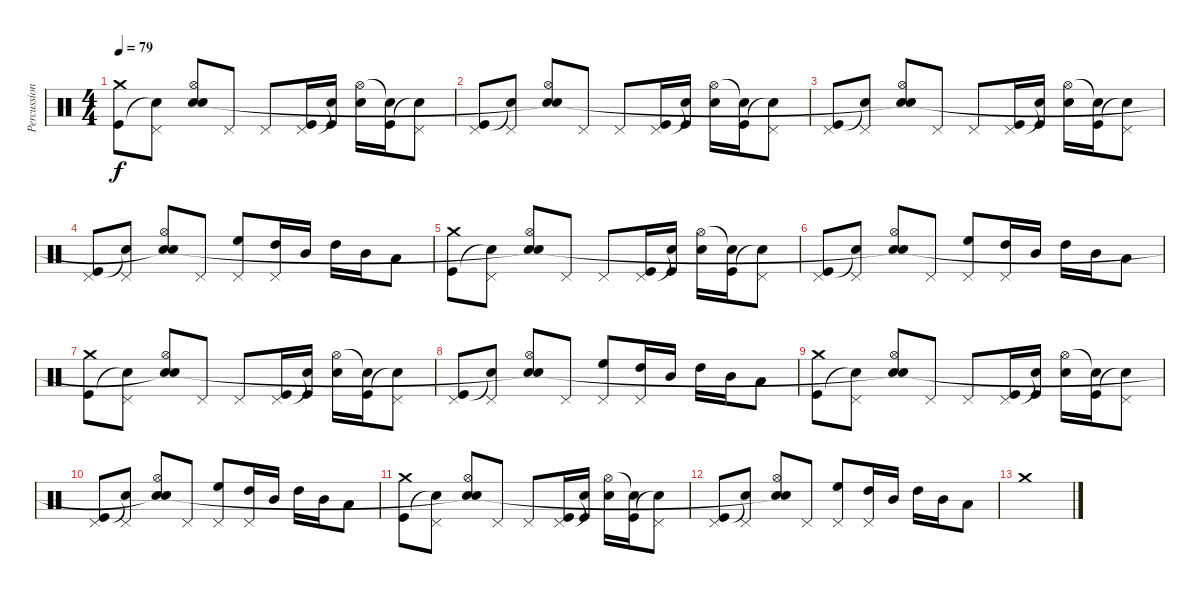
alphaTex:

\track ("Percussion" "Percussion") {instrument percussion}
\staff {score}
\articulation defaults
\ts (4 4)
\tempo 79
\clef neutral
\ks c
("Crash medium (hit)" "Kick (hit)").8{dy f} ("Pedal Hi-Hat (hit)" "Snare (hit)"{t}).8 ("Hi-Hat (open)" "Electric Snare (hit)" "Snare (hit)"{t}).8 "Pedal Hi-Hat (hit)".8 "Pedal Hi-Hat (hit)".8 ("Pedal Hi-Hat (hit)" "Kick (hit)").16 ("Snare (hit)"{t} "Kick (hit)").16 ("Hi-Hat (open)" "Electric Snare (hit)").16 ("Snare (hit)"{t} "Kick (hit)").16 ("Pedal Hi-Hat (hit)" "Snare (hit)"{t}).8 |
("Pedal Hi-Hat (hit)" "Kick (hit)").8 ("Pedal Hi-Hat (hit)" "Snare (hit)"{t}).8 ("Hi-Hat (open)" "Electric Snare (hit)" "Snare (hit)"{t}).8 "Pedal Hi-Hat (hit)".8 "Pedal Hi-Hat (hit)".8 ("Pedal Hi-Hat (hit)" "Kick (hit)").16 ("Snare (hit)"{t} "Kick (hit)").16 ("Hi-Hat (open)" "Electric Snare (hit)").16 ("Snare (hit)"{t} "Kick (hit)").16 ("Pedal Hi-Hat (hit)" "Snare (hit)"{t}).8 |
("Pedal Hi-Hat (hit)" "Kick (hit)").8 ("Pedal Hi-Hat (hit)" "Snare (hit)"{t}).8 ("Hi-Hat (open)" "Electric Snare (hit)" "Snare (hit)"{t}).8 "Pedal Hi-Hat (hit)".8 "Pedal Hi-Hat (hit)".8 ("Pedal Hi-Hat (hit)" "Kick (hit)").16 ("Snare (hit)"{t} "Kick (hit)").16 ("Hi-Hat (open)" "Electric Snare (hit)").16 ("Snare (hit)"{t} "Kick (hit)").16 ("Pedal Hi-Hat (hit)" "Snare (hit)"{t}).8 |
("Pedal Hi-Hat (hit)" "Kick (hit)").8 ("Pedal Hi-Hat (hit)" "Snare (hit)"{t}).8 ("Hi-Hat (open)" "Electric Snare (hit)" "Snare (hit)"{t}).8 "Pedal Hi-Hat (hit)".8 ("Pedal Hi-Hat (hit)" "High Floor Tom (hit)").8 ("Pedal Hi-Hat (hit)" "High Tom (hit)").16 "Mid Tom (hit)".16 "High Tom (hit)".16 "Mid Tom (hit)".16 "Low Tom (hit)".8 |
("Crash medium (hit)" "Kick (hit)").8 ("Pedal Hi-Hat (hit)" "Snare (hit)"{t}).8 ("Hi-Hat (open)" "Electric Snare (hit)" "Snare (hit)"{t}).8 "Pedal Hi-Hat (hit)".8 "Pedal Hi-Hat (hit)".8 ("Pedal Hi-Hat (hit)" "Kick (hit)").16 ("Snare (hit)"{t} "Kick (hit)").16 ("Hi-Hat (open)" "Electric Snare (hit)").16 ("Snare (hit)"{t} "Kick (hit)").16 ("Pedal Hi-Hat (hit)" "Snare (hit)"{t}).8 |
("Pedal Hi-Hat (hit)" "Kick (hit)").8 ("Pedal Hi-Hat (hit)" "Snare (hit)"{t}).8 ("Hi-Hat (open)" "Electric Snare (hit)" "Snare (hit)"{t}).8 "Pedal Hi-Hat (hit)".8 ("Pedal Hi-Hat (hit)" "High Floor Tom (hit)").8 ("Pedal Hi-Hat (hit)" "High Tom (hit)").16 "Mid Tom (hit)".16 "High Tom (hit)".16 "Mid Tom (hit)".16 "Low Tom (hit)".8 |
("Crash medium (hit)" "Kick (hit)").8 ("Pedal Hi-Hat (hit)" "Snare (hit)"{t}).8 ("Hi-Hat (open)" "Electric Snare (hit)" "Snare (hit)"{t}).8 "Pedal Hi-Hat (hit)".8 "Pedal Hi-Hat (hit)".8 ("Pedal Hi-Hat (hit)" "Kick (hit)").16 ("Snare (hit)"{t} "Kick (hit)").16 ("Hi-Hat (open)" "Electric Snare (hit)").16 ("Snare (hit)"{t} "Kick (hit)").16 ("Pedal Hi-Hat (hit)" "Snare (hit)"{t}).8 |
("Pedal Hi-Hat (hit)" "Kick (hit)").8 ("Pedal Hi-Hat (hit)" "Snare (hit)"{t}).8 ("Hi-Hat (open)" "Electric Snare (hit)" "Snare (hit)"{t}).8 "Pedal Hi-Hat (hit)".8 ("Pedal Hi-Hat (hit)" "High Floor Tom (hit)").8 ("Pedal Hi-Hat (hit)" "High Tom (hit)").16 "Mid Tom (hit)".16 "High Tom (hit)".16 "Mid Tom (hit)".16 "Low Tom (hit)".8 |
("Crash medium (hit)" "Kick (hit)").8 ("Pedal Hi-Hat (hit)" "Snare (hit)"{t}).8 ("Hi-Hat (open)" "Electric Snare (hit)" "Snare (hit)"{t}).8 "Pedal Hi-Hat (hit)".8 "Pedal Hi-Hat (hit)".8 ("Pedal Hi-Hat (hit)" "Kick (hit)").16 ("Snare (hit)"{t} "Kick (hit)").16 ("Hi-Hat (open)" "Electric Snare (hit)").16 ("Snare (hit)"{t} "Kick (hit)").16 ("Pedal Hi-Hat (hit)" "Snare (hit)"{t}).8 |
("Pedal Hi-Hat (hit)" "Kick (hit)").8 ("Pedal Hi-Hat (hit)" "Snare (hit)"{t}).8 ("Hi-Hat (open)" "Electric Snare (hit)" "Snare (hit)"{t}).8 "Pedal Hi-Hat (hit)".8 ("Pedal Hi-Hat (hit)" "High Floor Tom (hit)").8 ("Pedal Hi-Hat (hit)" "High Tom (hit)").16 "Mid Tom (hit)".16 "High Tom (hit)".16 "Mid Tom (hit)".16 "Low Tom (hit)".8 |
("Crash medium (hit)" "Kick (hit)").8 ("Pedal Hi-Hat (hit)" "Snare (hit)"{t}).8 ("Hi-Hat (open)" "Electric Snare (hit)" "Snare (hit)"{t}).8 "Pedal Hi-Hat (hit)".8 "Pedal Hi-Hat (hit)".8 ("Pedal Hi-Hat (hit)" "Kick (hit)").16 ("Snare (hit)"{t} "Kick (hit)").16 ("Hi-Hat (open)" "Electric Snare (hit)").16 ("Snare (hit)"{t} "Kick (hit)").16 ("Pedal Hi-Hat (hit)" "Snare (hit)"{t}).8 |
("Pedal Hi-Hat (hit)" "Kick (hit)").8 ("Pedal Hi-Hat (hit)" "Snare (hit)"{t}).8 ("Hi-Hat (open)" "Electric Snare (hit)" "Snare (hit)"{t}).8 "Pedal Hi-Hat (hit)".8 ("Pedal Hi-Hat (hit)" "High Floor Tom (hit)").8 ("Pedal Hi-Hat (hit)" "High Tom (hit)").16 "Mid Tom (hit)".16 "High Tom (hit)".16 "Mid Tom (hit)".16 "Low Tom (hit)".8 |
"Crash medium (hit)".1
